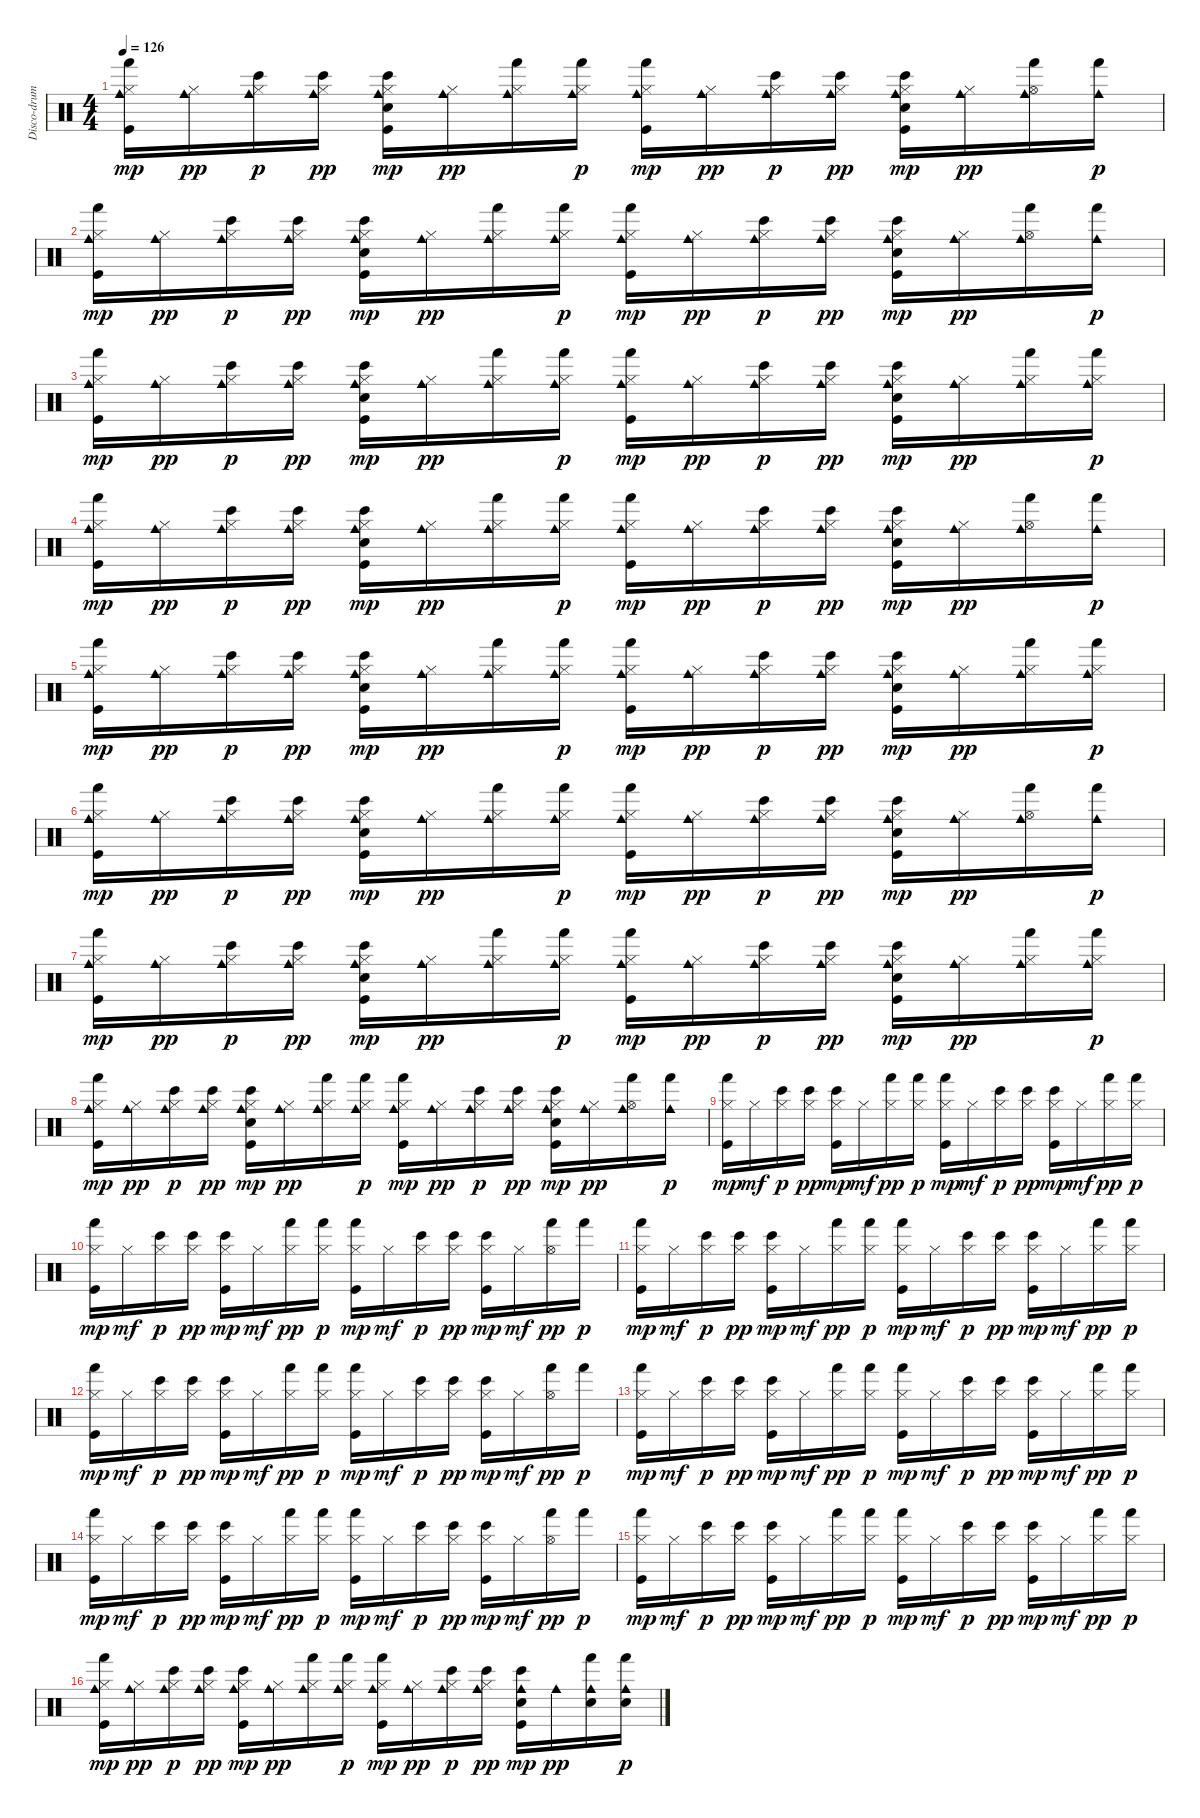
\track ("Disco-drums !" "Disco-drum") {instrument percussion}
\staff {score}
\articulation defaults
\ts (4 4)
\tempo 126
\clef neutral
\ks c
("Hi-Hat (closed)" "Kick (hit)" "Cowbell medium (hit)" "Hand (hit)").16{dy mp} ("Hi-Hat (closed)" "Cowbell medium (hit)").16{dy pp} ("Hi-Hat (closed)" "Cowbell medium (hit)" "Bongo High (hit)").16{dy p} ("Hi-Hat (closed)" "Cowbell medium (hit)" "Bongo High (hit)").16{dy pp} ("Hi-Hat (closed)" "Kick (hit)" "Snare (hit) 2" "Cowbell medium (hit)" "Bongo High (hit)").16{dy mp} ("Hi-Hat (closed)" "Cowbell medium (hit)").16{dy pp} ("Hi-Hat (closed)" "Cowbell medium (hit)" "Hand (hit)").16 ("Hi-Hat (closed)" "Cowbell medium (hit)" "Hand (hit)").16{dy p} ("Hi-Hat (closed)" "Kick (hit)" "Cowbell medium (hit)" "Hand (hit)").16{dy mp} ("Hi-Hat (closed)" "Cowbell medium (hit)").16{dy pp} ("Hi-Hat (closed)" "Cowbell medium (hit)" "Bongo High (hit)").16{dy p} ("Hi-Hat (closed)" "Cowbell medium (hit)" "Bongo High (hit)").16{dy pp} ("Hi-Hat (closed)" "Kick (hit)" "Snare (hit) 2" "Cowbell medium (hit)" "Bongo High (hit)").16{dy mp} ("Hi-Hat (closed)" "Cowbell medium (hit)").16{dy pp} ("Hi-Hat (open)" "Cowbell medium (hit)" "Hand (hit)").16 ("Cowbell medium (hit)" "Hand (hit)").16{dy p} |
("Hi-Hat (closed)" "Kick (hit)" "Cowbell medium (hit)" "Hand (hit)").16{dy mp} ("Hi-Hat (closed)" "Cowbell medium (hit)").16{dy pp} ("Hi-Hat (closed)" "Cowbell medium (hit)" "Bongo High (hit)").16{dy p} ("Hi-Hat (closed)" "Cowbell medium (hit)" "Bongo High (hit)").16{dy pp} ("Hi-Hat (closed)" "Kick (hit)" "Snare (hit) 2" "Cowbell medium (hit)" "Bongo High (hit)").16{dy mp} ("Hi-Hat (closed)" "Cowbell medium (hit)").16{dy pp} ("Hi-Hat (closed)" "Cowbell medium (hit)" "Hand (hit)").16 ("Hi-Hat (closed)" "Cowbell medium (hit)" "Hand (hit)").16{dy p} ("Hi-Hat (closed)" "Kick (hit)" "Cowbell medium (hit)" "Hand (hit)").16{dy mp} ("Hi-Hat (closed)" "Cowbell medium (hit)").16{dy pp} ("Hi-Hat (closed)" "Cowbell medium (hit)" "Bongo High (hit)").16{dy p} ("Hi-Hat (closed)" "Cowbell medium (hit)" "Bongo High (hit)").16{dy pp} ("Hi-Hat (closed)" "Kick (hit)" "Snare (hit) 2" "Cowbell medium (hit)" "Bongo High (hit)").16{dy mp} ("Hi-Hat (closed)" "Cowbell medium (hit)").16{dy pp} ("Hi-Hat (open)" "Cowbell medium (hit)" "Hand (hit)").16 ("Cowbell medium (hit)" "Hand (hit)").16{dy p} |
("Hi-Hat (closed)" "Kick (hit)" "Cowbell medium (hit)" "Hand (hit)").16{dy mp} ("Hi-Hat (closed)" "Cowbell medium (hit)").16{dy pp} ("Hi-Hat (closed)" "Cowbell medium (hit)" "Bongo High (hit)").16{dy p} ("Hi-Hat (closed)" "Cowbell medium (hit)" "Bongo High (hit)").16{dy pp} ("Hi-Hat (closed)" "Kick (hit)" "Snare (hit) 2" "Cowbell medium (hit)" "Bongo High (hit)").16{dy mp} ("Hi-Hat (closed)" "Cowbell medium (hit)").16{dy pp} ("Hi-Hat (closed)" "Cowbell medium (hit)" "Hand (hit)").16 ("Hi-Hat (closed)" "Cowbell medium (hit)" "Hand (hit)").16{dy p} ("Hi-Hat (closed)" "Kick (hit)" "Cowbell medium (hit)" "Hand (hit)").16{dy mp} ("Hi-Hat (closed)" "Cowbell medium (hit)").16{dy pp} ("Hi-Hat (closed)" "Cowbell medium (hit)" "Bongo High (hit)").16{dy p} ("Hi-Hat (closed)" "Cowbell medium (hit)" "Bongo High (hit)").16{dy pp} ("Hi-Hat (closed)" "Kick (hit)" "Snare (hit) 2" "Cowbell medium (hit)" "Bongo High (hit)").16{dy mp} ("Hi-Hat (closed)" "Cowbell medium (hit)").16{dy pp} ("Hi-Hat (closed)" "Cowbell medium (hit)" "Hand (hit)").16 ("Hi-Hat (closed)" "Cowbell medium (hit)" "Hand (hit)").16{dy p} |
("Hi-Hat (closed)" "Kick (hit)" "Cowbell medium (hit)" "Hand (hit)").16{dy mp} ("Hi-Hat (closed)" "Cowbell medium (hit)").16{dy pp} ("Hi-Hat (closed)" "Cowbell medium (hit)" "Bongo High (hit)").16{dy p} ("Hi-Hat (closed)" "Cowbell medium (hit)" "Bongo High (hit)").16{dy pp} ("Hi-Hat (closed)" "Kick (hit)" "Snare (hit) 2" "Cowbell medium (hit)" "Bongo High (hit)").16{dy mp} ("Hi-Hat (closed)" "Cowbell medium (hit)").16{dy pp} ("Hi-Hat (closed)" "Cowbell medium (hit)" "Hand (hit)").16 ("Hi-Hat (closed)" "Cowbell medium (hit)" "Hand (hit)").16{dy p} ("Hi-Hat (closed)" "Kick (hit)" "Cowbell medium (hit)" "Hand (hit)").16{dy mp} ("Hi-Hat (closed)" "Cowbell medium (hit)").16{dy pp} ("Hi-Hat (closed)" "Cowbell medium (hit)" "Bongo High (hit)").16{dy p} ("Hi-Hat (closed)" "Cowbell medium (hit)" "Bongo High (hit)").16{dy pp} ("Hi-Hat (closed)" "Kick (hit)" "Snare (hit) 2" "Cowbell medium (hit)" "Bongo High (hit)").16{dy mp} ("Hi-Hat (closed)" "Cowbell medium (hit)").16{dy pp} ("Hi-Hat (open)" "Cowbell medium (hit)" "Hand (hit)").16 ("Cowbell medium (hit)" "Hand (hit)").16{dy p} |
("Hi-Hat (closed)" "Kick (hit)" "Cowbell medium (hit)" "Hand (hit)").16{dy mp} ("Hi-Hat (closed)" "Cowbell medium (hit)").16{dy pp} ("Hi-Hat (closed)" "Cowbell medium (hit)" "Bongo High (hit)").16{dy p} ("Hi-Hat (closed)" "Cowbell medium (hit)" "Bongo High (hit)").16{dy pp} ("Hi-Hat (closed)" "Kick (hit)" "Snare (hit) 2" "Cowbell medium (hit)" "Bongo High (hit)").16{dy mp} ("Hi-Hat (closed)" "Cowbell medium (hit)").16{dy pp} ("Hi-Hat (closed)" "Cowbell medium (hit)" "Hand (hit)").16 ("Hi-Hat (closed)" "Cowbell medium (hit)" "Hand (hit)").16{dy p} ("Hi-Hat (closed)" "Kick (hit)" "Cowbell medium (hit)" "Hand (hit)").16{dy mp} ("Hi-Hat (closed)" "Cowbell medium (hit)").16{dy pp} ("Hi-Hat (closed)" "Cowbell medium (hit)" "Bongo High (hit)").16{dy p} ("Hi-Hat (closed)" "Cowbell medium (hit)" "Bongo High (hit)").16{dy pp} ("Hi-Hat (closed)" "Kick (hit)" "Snare (hit) 2" "Cowbell medium (hit)" "Bongo High (hit)").16{dy mp} ("Hi-Hat (closed)" "Cowbell medium (hit)").16{dy pp} ("Hi-Hat (closed)" "Cowbell medium (hit)" "Hand (hit)").16 ("Hi-Hat (closed)" "Cowbell medium (hit)" "Hand (hit)").16{dy p} |
("Hi-Hat (closed)" "Kick (hit)" "Cowbell medium (hit)" "Hand (hit)").16{dy mp} ("Hi-Hat (closed)" "Cowbell medium (hit)").16{dy pp} ("Hi-Hat (closed)" "Cowbell medium (hit)" "Bongo High (hit)").16{dy p} ("Hi-Hat (closed)" "Cowbell medium (hit)" "Bongo High (hit)").16{dy pp} ("Hi-Hat (closed)" "Kick (hit)" "Snare (hit) 2" "Cowbell medium (hit)" "Bongo High (hit)").16{dy mp} ("Hi-Hat (closed)" "Cowbell medium (hit)").16{dy pp} ("Hi-Hat (closed)" "Cowbell medium (hit)" "Hand (hit)").16 ("Hi-Hat (closed)" "Cowbell medium (hit)" "Hand (hit)").16{dy p} ("Hi-Hat (closed)" "Kick (hit)" "Cowbell medium (hit)" "Hand (hit)").16{dy mp} ("Hi-Hat (closed)" "Cowbell medium (hit)").16{dy pp} ("Hi-Hat (closed)" "Cowbell medium (hit)" "Bongo High (hit)").16{dy p} ("Hi-Hat (closed)" "Cowbell medium (hit)" "Bongo High (hit)").16{dy pp} ("Hi-Hat (closed)" "Kick (hit)" "Snare (hit) 2" "Cowbell medium (hit)" "Bongo High (hit)").16{dy mp} ("Hi-Hat (closed)" "Cowbell medium (hit)").16{dy pp} ("Hi-Hat (open)" "Cowbell medium (hit)" "Hand (hit)").16 ("Cowbell medium (hit)" "Hand (hit)").16{dy p} |
("Hi-Hat (closed)" "Kick (hit)" "Cowbell medium (hit)" "Hand (hit)").16{dy mp} ("Hi-Hat (closed)" "Cowbell medium (hit)").16{dy pp} ("Hi-Hat (closed)" "Cowbell medium (hit)" "Bongo High (hit)").16{dy p} ("Hi-Hat (closed)" "Cowbell medium (hit)" "Bongo High (hit)").16{dy pp} ("Hi-Hat (closed)" "Kick (hit)" "Snare (hit) 2" "Cowbell medium (hit)" "Bongo High (hit)").16{dy mp} ("Hi-Hat (closed)" "Cowbell medium (hit)").16{dy pp} ("Hi-Hat (closed)" "Cowbell medium (hit)" "Hand (hit)").16 ("Hi-Hat (closed)" "Cowbell medium (hit)" "Hand (hit)").16{dy p} ("Hi-Hat (closed)" "Kick (hit)" "Cowbell medium (hit)" "Hand (hit)").16{dy mp} ("Hi-Hat (closed)" "Cowbell medium (hit)").16{dy pp} ("Hi-Hat (closed)" "Cowbell medium (hit)" "Bongo High (hit)").16{dy p} ("Hi-Hat (closed)" "Cowbell medium (hit)" "Bongo High (hit)").16{dy pp} ("Hi-Hat (closed)" "Kick (hit)" "Snare (hit) 2" "Cowbell medium (hit)" "Bongo High (hit)").16{dy mp} ("Hi-Hat (closed)" "Cowbell medium (hit)").16{dy pp} ("Hi-Hat (closed)" "Cowbell medium (hit)" "Hand (hit)").16 ("Hi-Hat (closed)" "Cowbell medium (hit)" "Hand (hit)").16{dy p} |
("Hi-Hat (closed)" "Kick (hit)" "Cowbell medium (hit)" "Hand (hit)").16{dy mp} ("Hi-Hat (closed)" "Cowbell medium (hit)").16{dy pp} ("Hi-Hat (closed)" "Cowbell medium (hit)" "Bongo High (hit)").16{dy p} ("Hi-Hat (closed)" "Cowbell medium (hit)" "Bongo High (hit)").16{dy pp} ("Hi-Hat (closed)" "Kick (hit)" "Snare (hit) 2" "Cowbell medium (hit)" "Bongo High (hit)").16{dy mp} ("Hi-Hat (closed)" "Cowbell medium (hit)").16{dy pp} ("Hi-Hat (closed)" "Cowbell medium (hit)" "Hand (hit)").16 ("Hi-Hat (closed)" "Cowbell medium (hit)" "Hand (hit)").16{dy p} ("Hi-Hat (closed)" "Kick (hit)" "Cowbell medium (hit)" "Hand (hit)").16{dy mp} ("Hi-Hat (closed)" "Cowbell medium (hit)").16{dy pp} ("Hi-Hat (closed)" "Cowbell medium (hit)" "Bongo High (hit)").16{dy p} ("Hi-Hat (closed)" "Cowbell medium (hit)" "Bongo High (hit)").16{dy pp} ("Hi-Hat (closed)" "Kick (hit)" "Snare (hit) 2" "Cowbell medium (hit)" "Bongo High (hit)").16{dy mp} ("Hi-Hat (closed)" "Cowbell medium (hit)").16{dy pp} ("Hi-Hat (open)" "Cowbell medium (hit)" "Hand (hit)").16 ("Cowbell medium (hit)" "Hand (hit)").16{dy p} |
("Hi-Hat (closed)" "Kick (hit)" "Hand (hit)").16{dy mp} "Hi-Hat (closed)".16{dy mf} ("Hi-Hat (closed)" "Bongo High (hit)").16{dy p} ("Hi-Hat (closed)" "Bongo High (hit)").16{dy pp} ("Hi-Hat (closed)" "Kick (hit)" "Bongo High (hit)").16{dy mp} "Hi-Hat (closed)".16{dy mf} ("Hi-Hat (closed)" "Hand (hit)").16{dy pp} ("Hi-Hat (closed)" "Hand (hit)").16{dy p} ("Hi-Hat (closed)" "Kick (hit)" "Hand (hit)").16{dy mp} "Hi-Hat (closed)".16{dy mf} ("Hi-Hat (closed)" "Bongo High (hit)").16{dy p} ("Hi-Hat (closed)" "Bongo High (hit)").16{dy pp} ("Hi-Hat (closed)" "Kick (hit)" "Bongo High (hit)").16{dy mp} "Hi-Hat (closed)".16{dy mf} ("Hi-Hat (closed)" "Hand (hit)").16{dy pp} ("Hi-Hat (closed)" "Hand (hit)").16{dy p} |
("Hi-Hat (closed)" "Kick (hit)" "Hand (hit)").16{dy mp} "Hi-Hat (closed)".16{dy mf} ("Hi-Hat (closed)" "Bongo High (hit)").16{dy p} ("Hi-Hat (closed)" "Bongo High (hit)").16{dy pp} ("Hi-Hat (closed)" "Kick (hit)" "Bongo High (hit)").16{dy mp} "Hi-Hat (closed)".16{dy mf} ("Hi-Hat (closed)" "Hand (hit)").16{dy pp} ("Hi-Hat (closed)" "Hand (hit)").16{dy p} ("Hi-Hat (closed)" "Kick (hit)" "Hand (hit)").16{dy mp} "Hi-Hat (closed)".16{dy mf} ("Hi-Hat (closed)" "Bongo High (hit)").16{dy p} ("Hi-Hat (closed)" "Bongo High (hit)").16{dy pp} ("Hi-Hat (closed)" "Kick (hit)" "Bongo High (hit)").16{dy mp} "Hi-Hat (closed)".16{dy mf} ("Hi-Hat (open)" "Hand (hit)").16{dy pp} "Hand (hit)".16{dy p} |
("Hi-Hat (closed)" "Kick (hit)" "Hand (hit)").16{dy mp} "Hi-Hat (closed)".16{dy mf} ("Hi-Hat (closed)" "Bongo High (hit)").16{dy p} ("Hi-Hat (closed)" "Bongo High (hit)").16{dy pp} ("Hi-Hat (closed)" "Kick (hit)" "Bongo High (hit)").16{dy mp} "Hi-Hat (closed)".16{dy mf} ("Hi-Hat (closed)" "Hand (hit)").16{dy pp} ("Hi-Hat (closed)" "Hand (hit)").16{dy p} ("Hi-Hat (closed)" "Kick (hit)" "Hand (hit)").16{dy mp} "Hi-Hat (closed)".16{dy mf} ("Hi-Hat (closed)" "Bongo High (hit)").16{dy p} ("Hi-Hat (closed)" "Bongo High (hit)").16{dy pp} ("Hi-Hat (closed)" "Kick (hit)" "Bongo High (hit)").16{dy mp} "Hi-Hat (closed)".16{dy mf} ("Hi-Hat (closed)" "Hand (hit)").16{dy pp} ("Hi-Hat (closed)" "Hand (hit)").16{dy p} |
("Hi-Hat (closed)" "Kick (hit)" "Hand (hit)").16{dy mp} "Hi-Hat (closed)".16{dy mf} ("Hi-Hat (closed)" "Bongo High (hit)").16{dy p} ("Hi-Hat (closed)" "Bongo High (hit)").16{dy pp} ("Hi-Hat (closed)" "Kick (hit)" "Bongo High (hit)").16{dy mp} "Hi-Hat (closed)".16{dy mf} ("Hi-Hat (closed)" "Hand (hit)").16{dy pp} ("Hi-Hat (closed)" "Hand (hit)").16{dy p} ("Hi-Hat (closed)" "Kick (hit)" "Hand (hit)").16{dy mp} "Hi-Hat (closed)".16{dy mf} ("Hi-Hat (closed)" "Bongo High (hit)").16{dy p} ("Hi-Hat (closed)" "Bongo High (hit)").16{dy pp} ("Hi-Hat (closed)" "Kick (hit)" "Bongo High (hit)").16{dy mp} "Hi-Hat (closed)".16{dy mf} ("Hi-Hat (open)" "Hand (hit)").16{dy pp} "Hand (hit)".16{dy p} |
("Hi-Hat (closed)" "Kick (hit)" "Hand (hit)").16{dy mp} "Hi-Hat (closed)".16{dy mf} ("Hi-Hat (closed)" "Bongo High (hit)").16{dy p} ("Hi-Hat (closed)" "Bongo High (hit)").16{dy pp} ("Hi-Hat (closed)" "Kick (hit)" "Bongo High (hit)").16{dy mp} "Hi-Hat (closed)".16{dy mf} ("Hi-Hat (closed)" "Hand (hit)").16{dy pp} ("Hi-Hat (closed)" "Hand (hit)").16{dy p} ("Hi-Hat (closed)" "Kick (hit)" "Hand (hit)").16{dy mp} "Hi-Hat (closed)".16{dy mf} ("Hi-Hat (closed)" "Bongo High (hit)").16{dy p} ("Hi-Hat (closed)" "Bongo High (hit)").16{dy pp} ("Hi-Hat (closed)" "Kick (hit)" "Bongo High (hit)").16{dy mp} "Hi-Hat (closed)".16{dy mf} ("Hi-Hat (closed)" "Hand (hit)").16{dy pp} ("Hi-Hat (closed)" "Hand (hit)").16{dy p} |
("Hi-Hat (closed)" "Kick (hit)" "Hand (hit)").16{dy mp} "Hi-Hat (closed)".16{dy mf} ("Hi-Hat (closed)" "Bongo High (hit)").16{dy p} ("Hi-Hat (closed)" "Bongo High (hit)").16{dy pp} ("Hi-Hat (closed)" "Kick (hit)" "Bongo High (hit)").16{dy mp} "Hi-Hat (closed)".16{dy mf} ("Hi-Hat (closed)" "Hand (hit)").16{dy pp} ("Hi-Hat (closed)" "Hand (hit)").16{dy p} ("Hi-Hat (closed)" "Kick (hit)" "Hand (hit)").16{dy mp} "Hi-Hat (closed)".16{dy mf} ("Hi-Hat (closed)" "Bongo High (hit)").16{dy p} ("Hi-Hat (closed)" "Bongo High (hit)").16{dy pp} ("Hi-Hat (closed)" "Kick (hit)" "Bongo High (hit)").16{dy mp} "Hi-Hat (closed)".16{dy mf} ("Hi-Hat (open)" "Hand (hit)").16{dy pp} "Hand (hit)".16{dy p} |
("Hi-Hat (closed)" "Kick (hit)" "Hand (hit)").16{dy mp} "Hi-Hat (closed)".16{dy mf} ("Hi-Hat (closed)" "Bongo High (hit)").16{dy p} ("Hi-Hat (closed)" "Bongo High (hit)").16{dy pp} ("Hi-Hat (closed)" "Kick (hit)" "Bongo High (hit)").16{dy mp} "Hi-Hat (closed)".16{dy mf} ("Hi-Hat (closed)" "Hand (hit)").16{dy pp} ("Hi-Hat (closed)" "Hand (hit)").16{dy p} ("Hi-Hat (closed)" "Kick (hit)" "Hand (hit)").16{dy mp} "Hi-Hat (closed)".16{dy mf} ("Hi-Hat (closed)" "Bongo High (hit)").16{dy p} ("Hi-Hat (closed)" "Bongo High (hit)").16{dy pp} ("Hi-Hat (closed)" "Kick (hit)" "Bongo High (hit)").16{dy mp} "Hi-Hat (closed)".16{dy mf} ("Hi-Hat (closed)" "Hand (hit)").16{dy pp} ("Hi-Hat (closed)" "Hand (hit)").16{dy p} |
("Hi-Hat (closed)" "Kick (hit)" "Cowbell medium (hit)" "Hand (hit)").16{dy mp} ("Hi-Hat (closed)" "Cowbell medium (hit)").16{dy pp} ("Hi-Hat (closed)" "Cowbell medium (hit)" "Bongo High (hit)").16{dy p} ("Hi-Hat (closed)" "Cowbell medium (hit)" "Bongo High (hit)").16{dy pp} ("Hi-Hat (closed)" "Kick (hit)" "Cowbell medium (hit)" "Bongo High (hit)").16{dy mp} ("Hi-Hat (closed)" "Cowbell medium (hit)").16{dy pp} ("Hi-Hat (closed)" "Cowbell medium (hit)" "Hand (hit)").16 ("Hi-Hat (closed)" "Cowbell medium (hit)" "Hand (hit)").16{dy p} ("Hi-Hat (closed)" "Kick (hit)" "Cowbell medium (hit)" "Hand (hit)").16{dy mp} ("Hi-Hat (closed)" "Cowbell medium (hit)").16{dy pp} ("Hi-Hat (closed)" "Cowbell medium (hit)" "Bongo High (hit)").16{dy p} ("Hi-Hat (closed)" "Cowbell medium (hit)" "Bongo High (hit)").16{dy pp} ("Kick (hit)" "Snare (hit) 2" "Cowbell medium (hit)" "Bongo High (hit)").16{dy mp} "Cowbell medium (hit)".16{dy pp} ("Snare (hit) 2" "Cowbell medium (hit)" "Hand (hit)").16 ("Snare (hit) 2" "Cowbell medium (hit)" "Hand (hit)").16{dy p}
